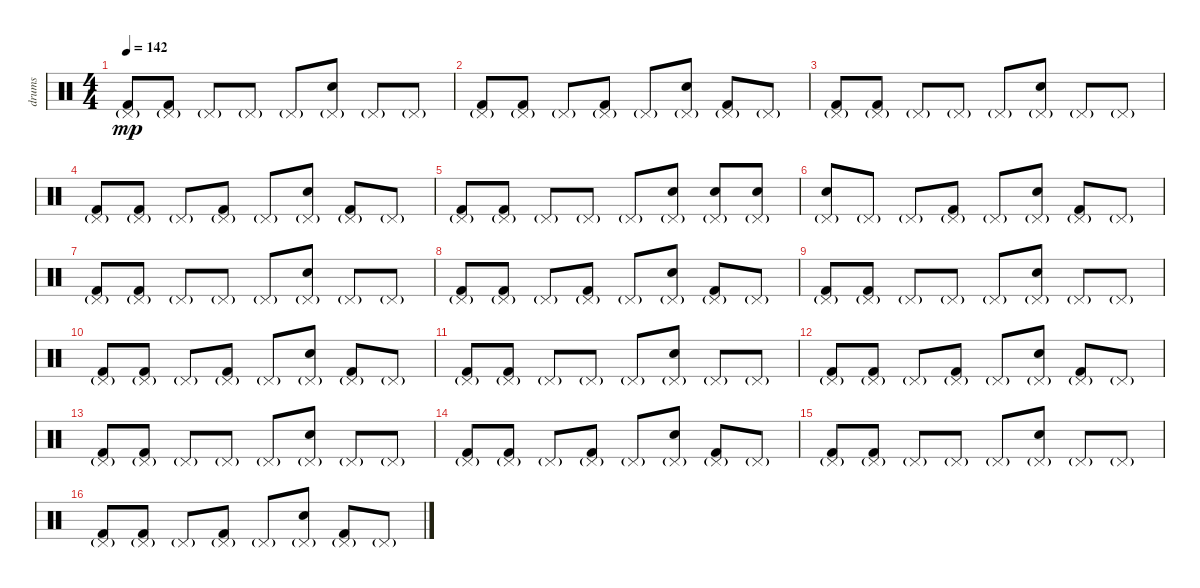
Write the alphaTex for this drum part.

\track ("drums" "drums") {instrument percussion}
\staff {score}
\articulation defaults
\ts (4 4)
\tempo 142
\clef neutral
\ks c
("Kick (hit) 2" "Pedal Hi-Hat (hit)"{g}).8{dy mp} ("Kick (hit) 2" "Pedal Hi-Hat (hit)"{g}).8 "Pedal Hi-Hat (hit)"{g}.8 "Pedal Hi-Hat (hit)"{g}.8 "Pedal Hi-Hat (hit)"{g}.8 ("Snare (hit) 2" "Pedal Hi-Hat (hit)"{g}).8 "Pedal Hi-Hat (hit)"{g}.8 "Pedal Hi-Hat (hit)"{g}.8 |
("Kick (hit) 2" "Pedal Hi-Hat (hit)"{g}).8 ("Kick (hit) 2" "Pedal Hi-Hat (hit)"{g}).8 "Pedal Hi-Hat (hit)"{g}.8 ("Kick (hit) 2" "Pedal Hi-Hat (hit)"{g}).8 "Pedal Hi-Hat (hit)"{g}.8 ("Snare (hit) 2" "Pedal Hi-Hat (hit)"{g}).8 ("Kick (hit) 2" "Pedal Hi-Hat (hit)"{g}).8 "Pedal Hi-Hat (hit)"{g}.8 |
("Kick (hit) 2" "Pedal Hi-Hat (hit)"{g}).8 ("Kick (hit) 2" "Pedal Hi-Hat (hit)"{g}).8 "Pedal Hi-Hat (hit)"{g}.8 "Pedal Hi-Hat (hit)"{g}.8 "Pedal Hi-Hat (hit)"{g}.8 ("Snare (hit) 2" "Pedal Hi-Hat (hit)"{g}).8 "Pedal Hi-Hat (hit)"{g}.8 "Pedal Hi-Hat (hit)"{g}.8 |
("Kick (hit) 2" "Pedal Hi-Hat (hit)"{g}).8 ("Kick (hit) 2" "Pedal Hi-Hat (hit)"{g}).8 "Pedal Hi-Hat (hit)"{g}.8 ("Kick (hit) 2" "Pedal Hi-Hat (hit)"{g}).8 "Pedal Hi-Hat (hit)"{g}.8 ("Snare (hit) 2" "Pedal Hi-Hat (hit)"{g}).8 ("Kick (hit) 2" "Pedal Hi-Hat (hit)"{g}).8 "Pedal Hi-Hat (hit)"{g}.8 |
("Kick (hit) 2" "Pedal Hi-Hat (hit)"{g}).8 ("Kick (hit) 2" "Pedal Hi-Hat (hit)"{g}).8 "Pedal Hi-Hat (hit)"{g}.8 "Pedal Hi-Hat (hit)"{g}.8 "Pedal Hi-Hat (hit)"{g}.8 ("Snare (hit) 2" "Pedal Hi-Hat (hit)"{g}).8 ("Snare (hit) 2" "Pedal Hi-Hat (hit)"{g}).8 ("Snare (hit) 2" "Pedal Hi-Hat (hit)"{g}).8 |
("Snare (hit) 2" "Pedal Hi-Hat (hit)"{g}).8 "Pedal Hi-Hat (hit)"{g}.8 "Pedal Hi-Hat (hit)"{g}.8 ("Kick (hit) 2" "Pedal Hi-Hat (hit)"{g}).8 "Pedal Hi-Hat (hit)"{g}.8 ("Snare (hit) 2" "Pedal Hi-Hat (hit)"{g}).8 ("Kick (hit) 2" "Pedal Hi-Hat (hit)"{g}).8 "Pedal Hi-Hat (hit)"{g}.8 |
("Kick (hit) 2" "Pedal Hi-Hat (hit)"{g}).8 ("Kick (hit) 2" "Pedal Hi-Hat (hit)"{g}).8 "Pedal Hi-Hat (hit)"{g}.8 "Pedal Hi-Hat (hit)"{g}.8 "Pedal Hi-Hat (hit)"{g}.8 ("Snare (hit) 2" "Pedal Hi-Hat (hit)"{g}).8 "Pedal Hi-Hat (hit)"{g}.8 "Pedal Hi-Hat (hit)"{g}.8 |
("Kick (hit) 2" "Pedal Hi-Hat (hit)"{g}).8 ("Kick (hit) 2" "Pedal Hi-Hat (hit)"{g}).8 "Pedal Hi-Hat (hit)"{g}.8 ("Kick (hit) 2" "Pedal Hi-Hat (hit)"{g}).8 "Pedal Hi-Hat (hit)"{g}.8 ("Snare (hit) 2" "Pedal Hi-Hat (hit)"{g}).8 ("Kick (hit) 2" "Pedal Hi-Hat (hit)"{g}).8 "Pedal Hi-Hat (hit)"{g}.8 |
("Kick (hit) 2" "Pedal Hi-Hat (hit)"{g}).8 ("Kick (hit) 2" "Pedal Hi-Hat (hit)"{g}).8 "Pedal Hi-Hat (hit)"{g}.8 "Pedal Hi-Hat (hit)"{g}.8 "Pedal Hi-Hat (hit)"{g}.8 ("Snare (hit) 2" "Pedal Hi-Hat (hit)"{g}).8 "Pedal Hi-Hat (hit)"{g}.8 "Pedal Hi-Hat (hit)"{g}.8 |
("Kick (hit) 2" "Pedal Hi-Hat (hit)"{g}).8 ("Kick (hit) 2" "Pedal Hi-Hat (hit)"{g}).8 "Pedal Hi-Hat (hit)"{g}.8 ("Kick (hit) 2" "Pedal Hi-Hat (hit)"{g}).8 "Pedal Hi-Hat (hit)"{g}.8 ("Snare (hit) 2" "Pedal Hi-Hat (hit)"{g}).8 ("Kick (hit) 2" "Pedal Hi-Hat (hit)"{g}).8 "Pedal Hi-Hat (hit)"{g}.8 |
("Kick (hit) 2" "Pedal Hi-Hat (hit)"{g}).8 ("Kick (hit) 2" "Pedal Hi-Hat (hit)"{g}).8 "Pedal Hi-Hat (hit)"{g}.8 "Pedal Hi-Hat (hit)"{g}.8 "Pedal Hi-Hat (hit)"{g}.8 ("Snare (hit) 2" "Pedal Hi-Hat (hit)"{g}).8 "Pedal Hi-Hat (hit)"{g}.8 "Pedal Hi-Hat (hit)"{g}.8 |
("Kick (hit) 2" "Pedal Hi-Hat (hit)"{g}).8 ("Kick (hit) 2" "Pedal Hi-Hat (hit)"{g}).8 "Pedal Hi-Hat (hit)"{g}.8 ("Kick (hit) 2" "Pedal Hi-Hat (hit)"{g}).8 "Pedal Hi-Hat (hit)"{g}.8 ("Snare (hit) 2" "Pedal Hi-Hat (hit)"{g}).8 ("Kick (hit) 2" "Pedal Hi-Hat (hit)"{g}).8 "Pedal Hi-Hat (hit)"{g}.8 |
("Kick (hit) 2" "Pedal Hi-Hat (hit)"{g}).8 ("Kick (hit) 2" "Pedal Hi-Hat (hit)"{g}).8 "Pedal Hi-Hat (hit)"{g}.8 "Pedal Hi-Hat (hit)"{g}.8 "Pedal Hi-Hat (hit)"{g}.8 ("Snare (hit) 2" "Pedal Hi-Hat (hit)"{g}).8 "Pedal Hi-Hat (hit)"{g}.8 "Pedal Hi-Hat (hit)"{g}.8 |
("Kick (hit) 2" "Pedal Hi-Hat (hit)"{g}).8 ("Kick (hit) 2" "Pedal Hi-Hat (hit)"{g}).8 "Pedal Hi-Hat (hit)"{g}.8 ("Kick (hit) 2" "Pedal Hi-Hat (hit)"{g}).8 "Pedal Hi-Hat (hit)"{g}.8 ("Snare (hit) 2" "Pedal Hi-Hat (hit)"{g}).8 ("Kick (hit) 2" "Pedal Hi-Hat (hit)"{g}).8 "Pedal Hi-Hat (hit)"{g}.8 |
("Kick (hit) 2" "Pedal Hi-Hat (hit)"{g}).8 ("Kick (hit) 2" "Pedal Hi-Hat (hit)"{g}).8 "Pedal Hi-Hat (hit)"{g}.8 "Pedal Hi-Hat (hit)"{g}.8 "Pedal Hi-Hat (hit)"{g}.8 ("Snare (hit) 2" "Pedal Hi-Hat (hit)"{g}).8 "Pedal Hi-Hat (hit)"{g}.8 "Pedal Hi-Hat (hit)"{g}.8 |
("Kick (hit) 2" "Pedal Hi-Hat (hit)"{g}).8 ("Kick (hit) 2" "Pedal Hi-Hat (hit)"{g}).8 "Pedal Hi-Hat (hit)"{g}.8 ("Kick (hit) 2" "Pedal Hi-Hat (hit)"{g}).8 "Pedal Hi-Hat (hit)"{g}.8 ("Snare (hit) 2" "Pedal Hi-Hat (hit)"{g}).8 ("Kick (hit) 2" "Pedal Hi-Hat (hit)"{g}).8 "Pedal Hi-Hat (hit)"{g}.8
